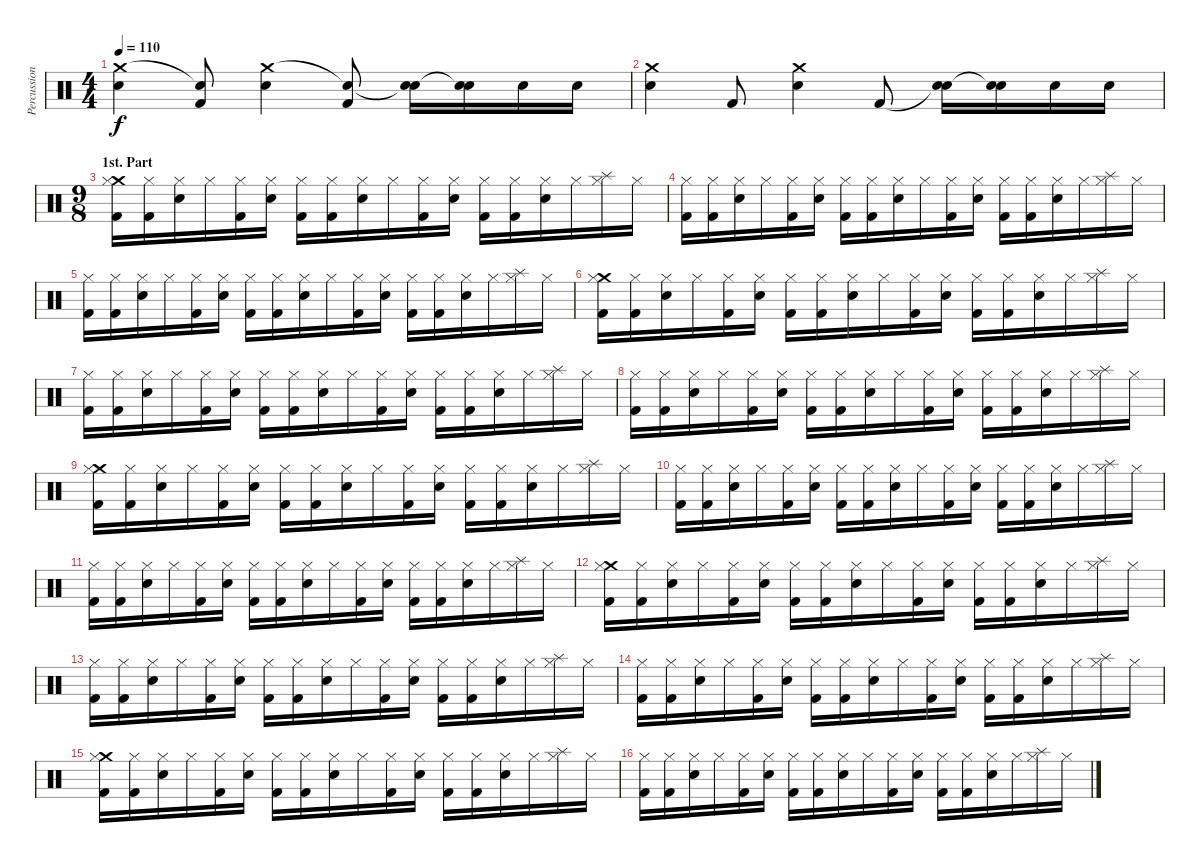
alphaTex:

\track ("Percussion" "Percussion") {instrument percussion}
\staff {score}
\articulation defaults
\ts (4 4)
\tempo 110
\clef neutral
\ks c
("Crash medium (hit)" "Snare (hit) 2").4{dy f} ("Snare (hit)"{t} "Kick (hit) 2").8 ("Crash medium (hit)" "Snare (hit) 2").4 ("Snare (hit)"{t} "Kick (hit) 2").8 ("Snare (hit)"{t} "Electric Snare (hit)").16 ("Snare (hit)"{t} "Electric Snare (hit)").16 "Electric Snare (hit)".16 "Electric Snare (hit)".16 |
("Crash medium (hit)" "Snare (hit) 2").4 "Kick (hit) 2".8 ("Crash medium (hit)" "Snare (hit) 2").4 "Kick (hit) 2".8 ("Snare (hit)"{t} "Electric Snare (hit)").16 ("Snare (hit)"{t} "Electric Snare (hit)").16 "Electric Snare (hit)".16 "Electric Snare (hit)".16 |
\ts (9 8)
\section ("" "1st. Part")
("Crash medium (hit)" "Hi-Hat (closed)" "Kick (hit) 2").16 ("Hi-Hat (closed)" "Kick (hit) 2").16 ("Hi-Hat (closed)" "Electric Snare (hit)").16 "Hi-Hat (closed)".16 ("Hi-Hat (closed)" "Kick (hit) 2").16 ("Hi-Hat (closed)" "Electric Snare (hit)").16 ("Hi-Hat (closed)" "Kick (hit) 2").16 ("Hi-Hat (closed)" "Kick (hit) 2").16 ("Hi-Hat (closed)" "Snare (hit) 2").16 "Hi-Hat (closed)".16 ("Hi-Hat (closed)" "Kick (hit) 2").16 ("Hi-Hat (closed)" "Electric Snare (hit)").16 ("Hi-Hat (closed)" "Kick (hit) 2").16 ("Hi-Hat (closed)" "Kick (hit) 2").16 ("Hi-Hat (closed)" "Electric Snare (hit)").16 "Hi-Hat (closed)".16 ("Hi-Hat (closed)" "Splash (hit)").16 "Hi-Hat (closed)".16 |
("Hi-Hat (closed)" "Kick (hit) 2").16 ("Hi-Hat (closed)" "Kick (hit) 2").16 ("Hi-Hat (closed)" "Electric Snare (hit)").16 "Hi-Hat (closed)".16 ("Hi-Hat (closed)" "Kick (hit) 2").16 ("Hi-Hat (closed)" "Electric Snare (hit)").16 ("Hi-Hat (closed)" "Kick (hit) 2").16 ("Hi-Hat (closed)" "Kick (hit) 2").16 ("Hi-Hat (closed)" "Snare (hit) 2").16 "Hi-Hat (closed)".16 ("Hi-Hat (closed)" "Kick (hit) 2").16 ("Hi-Hat (closed)" "Electric Snare (hit)").16 ("Hi-Hat (closed)" "Kick (hit) 2").16 ("Hi-Hat (closed)" "Kick (hit) 2").16 ("Hi-Hat (closed)" "Electric Snare (hit)").16 "Hi-Hat (closed)".16 ("Hi-Hat (closed)" "Splash (hit)").16 "Hi-Hat (closed)".16 |
("Hi-Hat (closed)" "Kick (hit) 2").16 ("Hi-Hat (closed)" "Kick (hit) 2").16 ("Hi-Hat (closed)" "Electric Snare (hit)").16 "Hi-Hat (closed)".16 ("Hi-Hat (closed)" "Kick (hit) 2").16 ("Hi-Hat (closed)" "Electric Snare (hit)").16 ("Hi-Hat (closed)" "Kick (hit) 2").16 ("Hi-Hat (closed)" "Kick (hit) 2").16 ("Hi-Hat (closed)" "Snare (hit) 2").16 "Hi-Hat (closed)".16 ("Hi-Hat (closed)" "Kick (hit) 2").16 ("Hi-Hat (closed)" "Electric Snare (hit)").16 ("Hi-Hat (closed)" "Kick (hit) 2").16 ("Hi-Hat (closed)" "Kick (hit) 2").16 ("Hi-Hat (closed)" "Electric Snare (hit)").16 "Hi-Hat (closed)".16 ("Hi-Hat (closed)" "Splash (hit)").16 "Hi-Hat (closed)".16 |
("Crash medium (hit)" "Hi-Hat (closed)" "Kick (hit) 2").16 ("Hi-Hat (closed)" "Kick (hit) 2").16 ("Hi-Hat (closed)" "Electric Snare (hit)").16 "Hi-Hat (closed)".16 ("Hi-Hat (closed)" "Kick (hit) 2").16 ("Hi-Hat (closed)" "Electric Snare (hit)").16 ("Hi-Hat (closed)" "Kick (hit) 2").16 ("Hi-Hat (closed)" "Kick (hit) 2").16 ("Hi-Hat (closed)" "Snare (hit) 2").16 "Hi-Hat (closed)".16 ("Hi-Hat (closed)" "Kick (hit) 2").16 ("Hi-Hat (closed)" "Electric Snare (hit)").16 ("Hi-Hat (closed)" "Kick (hit) 2").16 ("Hi-Hat (closed)" "Kick (hit) 2").16 ("Hi-Hat (closed)" "Electric Snare (hit)").16 "Hi-Hat (closed)".16 ("Hi-Hat (closed)" "Splash (hit)").16 "Hi-Hat (closed)".16 |
("Hi-Hat (closed)" "Kick (hit) 2").16 ("Hi-Hat (closed)" "Kick (hit) 2").16 ("Hi-Hat (closed)" "Electric Snare (hit)").16 "Hi-Hat (closed)".16 ("Hi-Hat (closed)" "Kick (hit) 2").16 ("Hi-Hat (closed)" "Electric Snare (hit)").16 ("Hi-Hat (closed)" "Kick (hit) 2").16 ("Hi-Hat (closed)" "Kick (hit) 2").16 ("Hi-Hat (closed)" "Snare (hit) 2").16 "Hi-Hat (closed)".16 ("Hi-Hat (closed)" "Kick (hit) 2").16 ("Hi-Hat (closed)" "Electric Snare (hit)").16 ("Hi-Hat (closed)" "Kick (hit) 2").16 ("Hi-Hat (closed)" "Kick (hit) 2").16 ("Hi-Hat (closed)" "Electric Snare (hit)").16 "Hi-Hat (closed)".16 ("Hi-Hat (closed)" "Splash (hit)").16 "Hi-Hat (closed)".16 |
("Hi-Hat (closed)" "Kick (hit) 2").16 ("Hi-Hat (closed)" "Kick (hit) 2").16 ("Hi-Hat (closed)" "Electric Snare (hit)").16 "Hi-Hat (closed)".16 ("Hi-Hat (closed)" "Kick (hit) 2").16 ("Hi-Hat (closed)" "Electric Snare (hit)").16 ("Hi-Hat (closed)" "Kick (hit) 2").16 ("Hi-Hat (closed)" "Kick (hit) 2").16 ("Hi-Hat (closed)" "Snare (hit) 2").16 "Hi-Hat (closed)".16 ("Hi-Hat (closed)" "Kick (hit) 2").16 ("Hi-Hat (closed)" "Electric Snare (hit)").16 ("Hi-Hat (closed)" "Kick (hit) 2").16 ("Hi-Hat (closed)" "Kick (hit) 2").16 ("Hi-Hat (closed)" "Electric Snare (hit)").16 "Hi-Hat (closed)".16 ("Hi-Hat (closed)" "Splash (hit)").16 "Hi-Hat (closed)".16 |
("Crash medium (hit)" "Hi-Hat (closed)" "Kick (hit) 2").16 ("Hi-Hat (closed)" "Kick (hit) 2").16 ("Hi-Hat (closed)" "Electric Snare (hit)").16 "Hi-Hat (closed)".16 ("Hi-Hat (closed)" "Kick (hit) 2").16 ("Hi-Hat (closed)" "Electric Snare (hit)").16 ("Hi-Hat (closed)" "Kick (hit) 2").16 ("Hi-Hat (closed)" "Kick (hit) 2").16 ("Hi-Hat (closed)" "Snare (hit) 2").16 "Hi-Hat (closed)".16 ("Hi-Hat (closed)" "Kick (hit) 2").16 ("Hi-Hat (closed)" "Electric Snare (hit)").16 ("Hi-Hat (closed)" "Kick (hit) 2").16 ("Hi-Hat (closed)" "Kick (hit) 2").16 ("Hi-Hat (closed)" "Electric Snare (hit)").16 "Hi-Hat (closed)".16 ("Hi-Hat (closed)" "Splash (hit)").16 "Hi-Hat (closed)".16 |
("Hi-Hat (closed)" "Kick (hit) 2").16 ("Hi-Hat (closed)" "Kick (hit) 2").16 ("Hi-Hat (closed)" "Electric Snare (hit)").16 "Hi-Hat (closed)".16 ("Hi-Hat (closed)" "Kick (hit) 2").16 ("Hi-Hat (closed)" "Electric Snare (hit)").16 ("Hi-Hat (closed)" "Kick (hit) 2").16 ("Hi-Hat (closed)" "Kick (hit) 2").16 ("Hi-Hat (closed)" "Snare (hit) 2").16 "Hi-Hat (closed)".16 ("Hi-Hat (closed)" "Kick (hit) 2").16 ("Hi-Hat (closed)" "Electric Snare (hit)").16 ("Hi-Hat (closed)" "Kick (hit) 2").16 ("Hi-Hat (closed)" "Kick (hit) 2").16 ("Hi-Hat (closed)" "Electric Snare (hit)").16 "Hi-Hat (closed)".16 ("Hi-Hat (closed)" "Splash (hit)").16 "Hi-Hat (closed)".16 |
("Hi-Hat (closed)" "Kick (hit) 2").16 ("Hi-Hat (closed)" "Kick (hit) 2").16 ("Hi-Hat (closed)" "Electric Snare (hit)").16 "Hi-Hat (closed)".16 ("Hi-Hat (closed)" "Kick (hit) 2").16 ("Hi-Hat (closed)" "Electric Snare (hit)").16 ("Hi-Hat (closed)" "Kick (hit) 2").16 ("Hi-Hat (closed)" "Kick (hit) 2").16 ("Hi-Hat (closed)" "Snare (hit) 2").16 "Hi-Hat (closed)".16 ("Hi-Hat (closed)" "Kick (hit) 2").16 ("Hi-Hat (closed)" "Electric Snare (hit)").16 ("Hi-Hat (closed)" "Kick (hit) 2").16 ("Hi-Hat (closed)" "Kick (hit) 2").16 ("Hi-Hat (closed)" "Electric Snare (hit)").16 "Hi-Hat (closed)".16 ("Hi-Hat (closed)" "Splash (hit)").16 "Hi-Hat (closed)".16 |
("Crash medium (hit)" "Hi-Hat (closed)" "Kick (hit) 2").16 ("Hi-Hat (closed)" "Kick (hit) 2").16 ("Hi-Hat (closed)" "Electric Snare (hit)").16 "Hi-Hat (closed)".16 ("Hi-Hat (closed)" "Kick (hit) 2").16 ("Hi-Hat (closed)" "Electric Snare (hit)").16 ("Hi-Hat (closed)" "Kick (hit) 2").16 ("Hi-Hat (closed)" "Kick (hit) 2").16 ("Hi-Hat (closed)" "Snare (hit) 2").16 "Hi-Hat (closed)".16 ("Hi-Hat (closed)" "Kick (hit) 2").16 ("Hi-Hat (closed)" "Electric Snare (hit)").16 ("Hi-Hat (closed)" "Kick (hit) 2").16 ("Hi-Hat (closed)" "Kick (hit) 2").16 ("Hi-Hat (closed)" "Electric Snare (hit)").16 "Hi-Hat (closed)".16 ("Hi-Hat (closed)" "Splash (hit)").16 "Hi-Hat (closed)".16 |
("Hi-Hat (closed)" "Kick (hit) 2").16 ("Hi-Hat (closed)" "Kick (hit) 2").16 ("Hi-Hat (closed)" "Electric Snare (hit)").16 "Hi-Hat (closed)".16 ("Hi-Hat (closed)" "Kick (hit) 2").16 ("Hi-Hat (closed)" "Electric Snare (hit)").16 ("Hi-Hat (closed)" "Kick (hit) 2").16 ("Hi-Hat (closed)" "Kick (hit) 2").16 ("Hi-Hat (closed)" "Snare (hit) 2").16 "Hi-Hat (closed)".16 ("Hi-Hat (closed)" "Kick (hit) 2").16 ("Hi-Hat (closed)" "Electric Snare (hit)").16 ("Hi-Hat (closed)" "Kick (hit) 2").16 ("Hi-Hat (closed)" "Kick (hit) 2").16 ("Hi-Hat (closed)" "Electric Snare (hit)").16 "Hi-Hat (closed)".16 ("Hi-Hat (closed)" "Splash (hit)").16 "Hi-Hat (closed)".16 |
("Hi-Hat (closed)" "Kick (hit) 2").16 ("Hi-Hat (closed)" "Kick (hit) 2").16 ("Hi-Hat (closed)" "Electric Snare (hit)").16 "Hi-Hat (closed)".16 ("Hi-Hat (closed)" "Kick (hit) 2").16 ("Hi-Hat (closed)" "Electric Snare (hit)").16 ("Hi-Hat (closed)" "Kick (hit) 2").16 ("Hi-Hat (closed)" "Kick (hit) 2").16 ("Hi-Hat (closed)" "Snare (hit) 2").16 "Hi-Hat (closed)".16 ("Hi-Hat (closed)" "Kick (hit) 2").16 ("Hi-Hat (closed)" "Electric Snare (hit)").16 ("Hi-Hat (closed)" "Kick (hit) 2").16 ("Hi-Hat (closed)" "Kick (hit) 2").16 ("Hi-Hat (closed)" "Electric Snare (hit)").16 "Hi-Hat (closed)".16 ("Hi-Hat (closed)" "Splash (hit)").16 "Hi-Hat (closed)".16 |
("Crash medium (hit)" "Hi-Hat (closed)" "Kick (hit) 2").16 ("Hi-Hat (closed)" "Kick (hit) 2").16 ("Hi-Hat (closed)" "Electric Snare (hit)").16 "Hi-Hat (closed)".16 ("Hi-Hat (closed)" "Kick (hit) 2").16 ("Hi-Hat (closed)" "Electric Snare (hit)").16 ("Hi-Hat (closed)" "Kick (hit) 2").16 ("Hi-Hat (closed)" "Kick (hit) 2").16 ("Hi-Hat (closed)" "Snare (hit) 2").16 "Hi-Hat (closed)".16 ("Hi-Hat (closed)" "Kick (hit) 2").16 ("Hi-Hat (closed)" "Electric Snare (hit)").16 ("Hi-Hat (closed)" "Kick (hit) 2").16 ("Hi-Hat (closed)" "Kick (hit) 2").16 ("Hi-Hat (closed)" "Electric Snare (hit)").16 "Hi-Hat (closed)".16 ("Hi-Hat (closed)" "Splash (hit)").16 "Hi-Hat (closed)".16 |
("Hi-Hat (closed)" "Kick (hit) 2").16 ("Hi-Hat (closed)" "Kick (hit) 2").16 ("Hi-Hat (closed)" "Electric Snare (hit)").16 "Hi-Hat (closed)".16 ("Hi-Hat (closed)" "Kick (hit) 2").16 ("Hi-Hat (closed)" "Electric Snare (hit)").16 ("Hi-Hat (closed)" "Kick (hit) 2").16 ("Hi-Hat (closed)" "Kick (hit) 2").16 ("Hi-Hat (closed)" "Snare (hit) 2").16 "Hi-Hat (closed)".16 ("Hi-Hat (closed)" "Kick (hit) 2").16 ("Hi-Hat (closed)" "Electric Snare (hit)").16 ("Hi-Hat (closed)" "Kick (hit) 2").16 ("Hi-Hat (closed)" "Kick (hit) 2").16 ("Hi-Hat (closed)" "Electric Snare (hit)").16 "Hi-Hat (closed)".16 ("Hi-Hat (closed)" "Splash (hit)").16 "Hi-Hat (closed)".16
